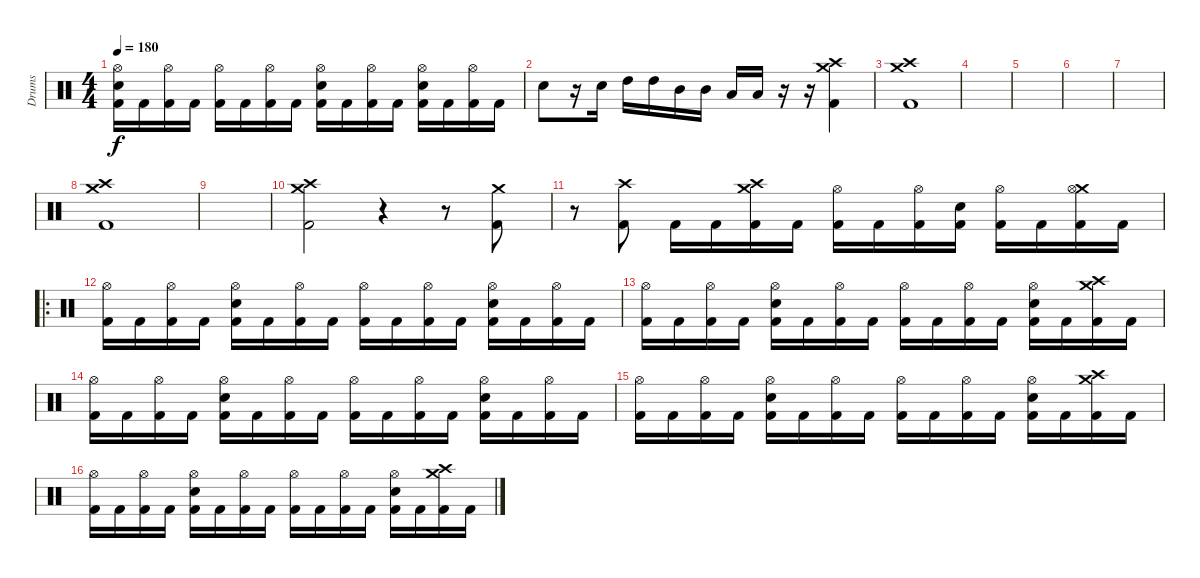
\track ("Drums" "Drums") {instrument percussion}
\staff {score}
\articulation defaults
\ts (4 4)
\tempo 180
\clef neutral
\ks c
("Hi-Hat (open)" "Electric Snare (hit)" "Kick (hit) 2").16{dy f} "Kick (hit) 2".16 ("Hi-Hat (open)" "Kick (hit) 2").16 "Kick (hit) 2".16 ("Hi-Hat (open)" "Kick (hit) 2").16 "Kick (hit) 2".16 ("Hi-Hat (open)" "Kick (hit) 2").16 "Kick (hit) 2".16 ("Hi-Hat (open)" "Electric Snare (hit)" "Kick (hit) 2").16 "Kick (hit) 2".16 ("Hi-Hat (open)" "Kick (hit) 2").16 "Kick (hit) 2".16 ("Hi-Hat (open)" "Electric Snare (hit)" "Kick (hit) 2").16 "Kick (hit) 2".16 ("Hi-Hat (open)" "Kick (hit) 2").16 "Kick (hit) 2".16 |
"Electric Snare (hit)".8 r.16 "Electric Snare (hit)".16 "High Tom (hit)".16 "High Tom (hit)".16 "Mid Tom (hit)".16 "Mid Tom (hit)".16 "Low Tom (hit)".16 "Low Tom (hit)".16 r.16 r.16 ("Crash high (hit)" "Crash medium (hit)" "Kick (hit) 2").4 |
("Crash high (hit)" "Crash medium (hit)" "Kick (hit) 2").1 |
|
|
|
|
("Crash high (hit)" "Crash medium (hit)" "Kick (hit) 2").1 |
|
("Crash high (hit)" "Crash medium (hit)" "Kick (hit) 2").2 r.4 r.8 ("Crash medium (hit)" "Kick (hit) 2").8 |
r.8 ("Crash high (hit)" "Kick (hit) 2").8 "Kick (hit) 2".16 "Kick (hit) 2".16 ("Crash high (hit)" "Crash medium (hit)" "Kick (hit) 2").16 "Kick (hit) 2".16 ("Hi-Hat (open)" "Kick (hit) 2").16 "Kick (hit) 2".16 ("Hi-Hat (open)" "Kick (hit) 2").16 ("Electric Snare (hit)" "Kick (hit) 2").16 ("Hi-Hat (open)" "Kick (hit) 2").16 "Kick (hit) 2".16 ("Crash medium (hit)" "Hi-Hat (open)" "Kick (hit) 2").16 "Kick (hit) 2".16 |
\ro
("Hi-Hat (open)" "Kick (hit) 2").16 "Kick (hit) 2".16 ("Hi-Hat (open)" "Kick (hit) 2").16 "Kick (hit) 2".16 ("Hi-Hat (open)" "Electric Snare (hit)" "Kick (hit) 2").16 "Kick (hit) 2".16 ("Hi-Hat (open)" "Kick (hit) 2").16 "Kick (hit) 2".16 ("Hi-Hat (open)" "Kick (hit) 2").16 "Kick (hit) 2".16 ("Hi-Hat (open)" "Kick (hit) 2").16 "Kick (hit) 2".16 ("Hi-Hat (open)" "Electric Snare (hit)" "Kick (hit) 2").16 "Kick (hit) 2".16 ("Hi-Hat (open)" "Kick (hit) 2").16 "Kick (hit) 2".16 |
("Hi-Hat (open)" "Kick (hit) 2").16 "Kick (hit) 2".16 ("Hi-Hat (open)" "Kick (hit) 2").16 "Kick (hit) 2".16 ("Hi-Hat (open)" "Electric Snare (hit)" "Kick (hit) 2").16 "Kick (hit) 2".16 ("Hi-Hat (open)" "Kick (hit) 2").16 "Kick (hit) 2".16 ("Hi-Hat (open)" "Kick (hit) 2").16 "Kick (hit) 2".16 ("Hi-Hat (open)" "Kick (hit) 2").16 "Kick (hit) 2".16 ("Hi-Hat (open)" "Electric Snare (hit)" "Kick (hit) 2").16 "Kick (hit) 2".16 ("Crash high (hit)" "Crash medium (hit)" "Kick (hit) 2").16 "Kick (hit) 2".16 |
("Hi-Hat (open)" "Kick (hit) 2").16 "Kick (hit) 2".16 ("Hi-Hat (open)" "Kick (hit) 2").16 "Kick (hit) 2".16 ("Hi-Hat (open)" "Electric Snare (hit)" "Kick (hit) 2").16 "Kick (hit) 2".16 ("Hi-Hat (open)" "Kick (hit) 2").16 "Kick (hit) 2".16 ("Hi-Hat (open)" "Kick (hit) 2").16 "Kick (hit) 2".16 ("Hi-Hat (open)" "Kick (hit) 2").16 "Kick (hit) 2".16 ("Hi-Hat (open)" "Electric Snare (hit)" "Kick (hit) 2").16 "Kick (hit) 2".16 ("Hi-Hat (open)" "Kick (hit) 2").16 "Kick (hit) 2".16 |
("Hi-Hat (open)" "Kick (hit) 2").16 "Kick (hit) 2".16 ("Hi-Hat (open)" "Kick (hit) 2").16 "Kick (hit) 2".16 ("Hi-Hat (open)" "Electric Snare (hit)" "Kick (hit) 2").16 "Kick (hit) 2".16 ("Hi-Hat (open)" "Kick (hit) 2").16 "Kick (hit) 2".16 ("Hi-Hat (open)" "Kick (hit) 2").16 "Kick (hit) 2".16 ("Hi-Hat (open)" "Kick (hit) 2").16 "Kick (hit) 2".16 ("Hi-Hat (open)" "Electric Snare (hit)" "Kick (hit) 2").16 "Kick (hit) 2".16 ("Crash high (hit)" "Crash medium (hit)" "Kick (hit) 2").16 "Kick (hit) 2".16 |
("Hi-Hat (open)" "Kick (hit) 2").16 "Kick (hit) 2".16 ("Hi-Hat (open)" "Kick (hit) 2").16 "Kick (hit) 2".16 ("Hi-Hat (open)" "Electric Snare (hit)" "Kick (hit) 2").16 "Kick (hit) 2".16 ("Hi-Hat (open)" "Kick (hit) 2").16 "Kick (hit) 2".16 ("Hi-Hat (open)" "Kick (hit) 2").16 "Kick (hit) 2".16 ("Hi-Hat (open)" "Kick (hit) 2").16 "Kick (hit) 2".16 ("Hi-Hat (open)" "Electric Snare (hit)" "Kick (hit) 2").16 "Kick (hit) 2".16 ("Crash high (hit)" "Crash medium (hit)" "Kick (hit) 2").16 "Kick (hit) 2".16
